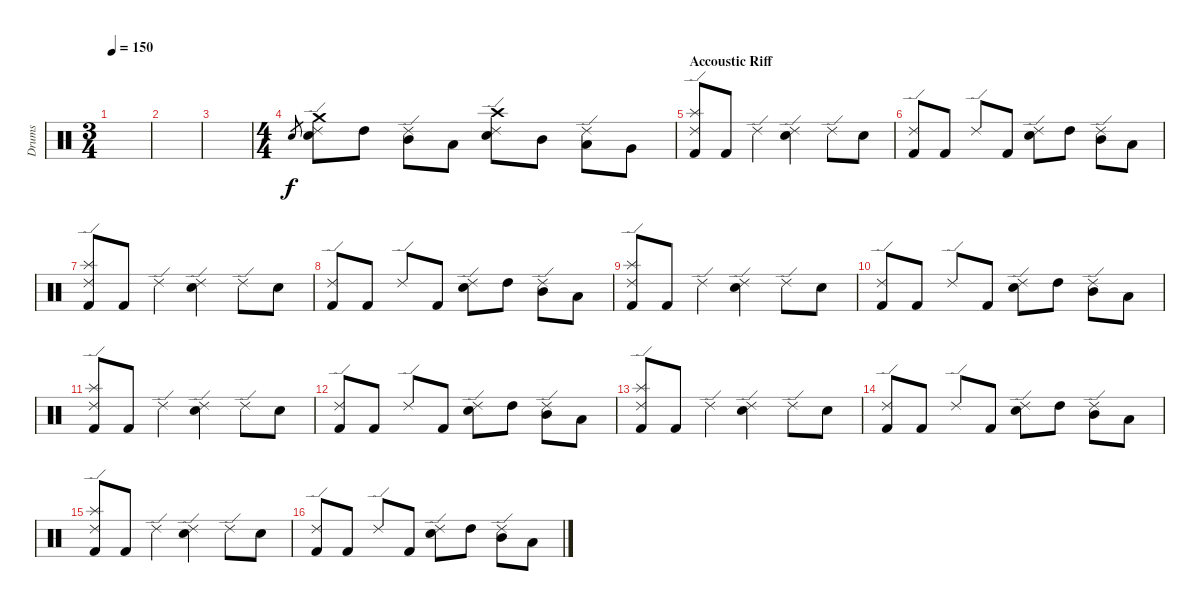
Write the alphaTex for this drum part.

\track ("Drums" "Drums") {instrument percussion}
\staff {score}
\articulation defaults
\ts (3 4)
\tempo 150
\clef neutral
\ks c
|
|
|
\ts (4 4)
"Electric Snare (hit)".8{gr} ("Crash medium (hit)" "Ride (edge) 2" "Electric Snare (hit)").8 "High Tom (hit)".8 ("Ride (edge) 2" "Mid Tom (hit)").8 "Low Tom (hit)".8 ("Crash high (hit)" "Ride (edge) 2" "Electric Snare (hit)").8 "Mid Tom (hit)".8 ("Ride (edge) 2" "Low Tom (hit)").8 "Very Low Tom (hit)".8 |
\section ("" "Accoustic Riff")
("Splash (hit)" "Ride (edge) 2" "Kick (hit) 2").8 "Kick (hit) 2".8 "Ride (edge) 2".4 ("Ride (edge) 2" "Electric Snare (hit)").4 "Ride (edge) 2".8 "Electric Snare (hit)".8 |
("Ride (edge) 2" "Kick (hit) 2").8 "Kick (hit) 2".8 "Ride (edge) 2".8 "Kick (hit) 2".8 ("Ride (edge) 2" "Electric Snare (hit)").8 "High Tom (hit)".8 ("Ride (edge) 2" "Mid Tom (hit)").8 "Low Tom (hit)".8 |
("Splash (hit)" "Ride (edge) 2" "Kick (hit) 2").8 "Kick (hit) 2".8 "Ride (edge) 2".4 ("Ride (edge) 2" "Electric Snare (hit)").4 "Ride (edge) 2".8 "Electric Snare (hit)".8 |
("Ride (edge) 2" "Kick (hit) 2").8 "Kick (hit) 2".8 "Ride (edge) 2".8 "Kick (hit) 2".8 ("Ride (edge) 2" "Electric Snare (hit)").8 "High Tom (hit)".8 ("Ride (edge) 2" "Mid Tom (hit)").8 "Low Tom (hit)".8 |
("Splash (hit)" "Ride (edge) 2" "Kick (hit) 2").8 "Kick (hit) 2".8 "Ride (edge) 2".4 ("Ride (edge) 2" "Electric Snare (hit)").4 "Ride (edge) 2".8 "Electric Snare (hit)".8 |
("Ride (edge) 2" "Kick (hit) 2").8 "Kick (hit) 2".8 "Ride (edge) 2".8 "Kick (hit) 2".8 ("Ride (edge) 2" "Electric Snare (hit)").8 "High Tom (hit)".8 ("Ride (edge) 2" "Mid Tom (hit)").8 "Low Tom (hit)".8 |
("Splash (hit)" "Ride (edge) 2" "Kick (hit) 2").8 "Kick (hit) 2".8 "Ride (edge) 2".4 ("Ride (edge) 2" "Electric Snare (hit)").4 "Ride (edge) 2".8 "Electric Snare (hit)".8 |
("Ride (edge) 2" "Kick (hit) 2").8 "Kick (hit) 2".8 "Ride (edge) 2".8 "Kick (hit) 2".8 ("Ride (edge) 2" "Electric Snare (hit)").8 "High Tom (hit)".8 ("Ride (edge) 2" "Mid Tom (hit)").8 "Low Tom (hit)".8 |
("Splash (hit)" "Ride (edge) 2" "Kick (hit) 2").8 "Kick (hit) 2".8 "Ride (edge) 2".4 ("Ride (edge) 2" "Electric Snare (hit)").4 "Ride (edge) 2".8 "Electric Snare (hit)".8 |
("Ride (edge) 2" "Kick (hit) 2").8 "Kick (hit) 2".8 "Ride (edge) 2".8 "Kick (hit) 2".8 ("Ride (edge) 2" "Electric Snare (hit)").8 "High Tom (hit)".8 ("Ride (edge) 2" "Mid Tom (hit)").8 "Low Tom (hit)".8 |
("Splash (hit)" "Ride (edge) 2" "Kick (hit) 2").8 "Kick (hit) 2".8 "Ride (edge) 2".4 ("Ride (edge) 2" "Electric Snare (hit)").4 "Ride (edge) 2".8 "Electric Snare (hit)".8 |
("Ride (edge) 2" "Kick (hit) 2").8 "Kick (hit) 2".8 "Ride (edge) 2".8 "Kick (hit) 2".8 ("Ride (edge) 2" "Electric Snare (hit)").8 "High Tom (hit)".8 ("Ride (edge) 2" "Mid Tom (hit)").8 "Low Tom (hit)".8
